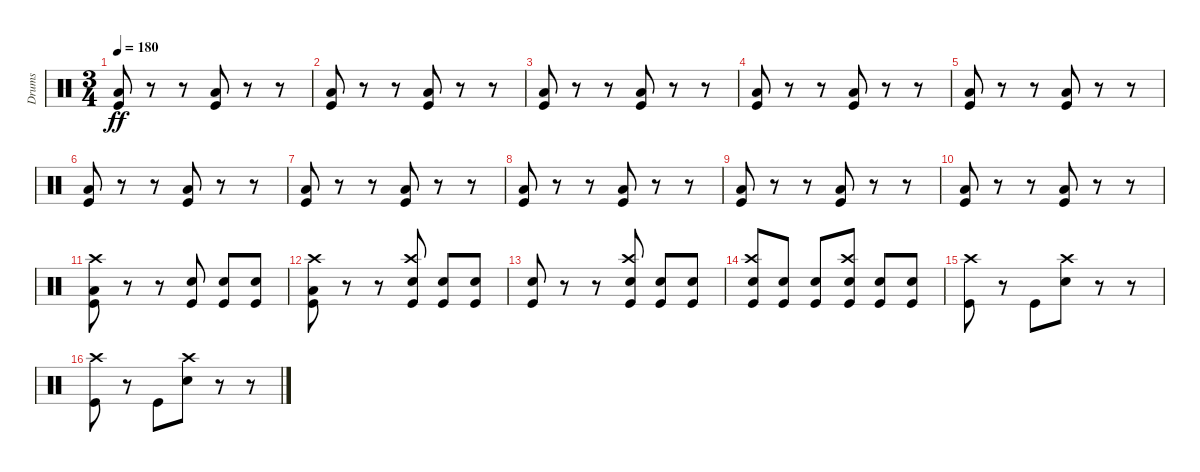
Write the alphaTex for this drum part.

\track ("Drums" "Drums") {instrument percussion}
\staff {score}
\articulation defaults
\ts (3 4)
\tempo 180
\clef neutral
\ks c
("Low Floor Tom (hit)" "Kick (hit)").8{dy ff} r.8 r.8 ("Low Floor Tom (hit)" "Kick (hit)").8 r.8 r.8 |
("Low Floor Tom (hit)" "Kick (hit)").8 r.8 r.8 ("Low Floor Tom (hit)" "Kick (hit)").8 r.8 r.8 |
("Low Floor Tom (hit)" "Kick (hit)").8 r.8 r.8 ("Low Floor Tom (hit)" "Kick (hit)").8 r.8 r.8 |
("Low Floor Tom (hit)" "Kick (hit)").8 r.8 r.8 ("Low Floor Tom (hit)" "Kick (hit)").8 r.8 r.8 |
("Low Floor Tom (hit)" "Kick (hit)").8 r.8 r.8 ("Low Floor Tom (hit)" "Kick (hit)").8 r.8 r.8 |
("Low Floor Tom (hit)" "Kick (hit)").8 r.8 r.8 ("Low Floor Tom (hit)" "Kick (hit)").8 r.8 r.8 |
("Low Floor Tom (hit)" "Kick (hit)").8 r.8 r.8 ("Low Floor Tom (hit)" "Kick (hit)").8 r.8 r.8 |
("Low Floor Tom (hit)" "Kick (hit)").8 r.8 r.8 ("Low Floor Tom (hit)" "Kick (hit)").8 r.8 r.8 |
("Low Floor Tom (hit)" "Kick (hit)").8 r.8 r.8 ("Low Floor Tom (hit)" "Kick (hit)").8 r.8 r.8 |
("Low Floor Tom (hit)" "Kick (hit)").8 r.8 r.8 ("Low Floor Tom (hit)" "Kick (hit)").8 r.8 r.8 |
("Crash high (hit)" "Low Floor Tom (hit)" "Kick (hit)").8 r.8 r.8 ("Snare (hit) 2" "Kick (hit)").8 ("Snare (hit) 2" "Kick (hit)").8 ("Snare (hit) 2" "Kick (hit)").8 |
("Crash high (hit)" "Low Floor Tom (hit)" "Kick (hit)").8 r.8 r.8 ("Crash high (hit)" "Snare (hit) 2" "Kick (hit)").8 ("Snare (hit) 2" "Kick (hit)").8 ("Snare (hit) 2" "Kick (hit)").8 |
("Snare (hit) 2" "Kick (hit)").8 r.8 r.8 ("Crash high (hit)" "Snare (hit) 2" "Kick (hit)").8 ("Snare (hit) 2" "Kick (hit)").8 ("Snare (hit) 2" "Kick (hit)").8 |
("Crash high (hit)" "Snare (hit) 2" "Kick (hit)").8 ("Snare (hit) 2" "Kick (hit)").8 ("Snare (hit) 2" "Kick (hit)").8 ("Crash high (hit)" "Snare (hit) 2" "Kick (hit)").8 ("Snare (hit) 2" "Kick (hit)").8 ("Snare (hit) 2" "Kick (hit)").8 |
("Crash high (hit)" "Kick (hit)").8 r.8 "Kick (hit)".8 ("Crash high (hit)" "Snare (hit) 2").8 r.8 r.8 |
("Crash high (hit)" "Kick (hit)").8 r.8 "Kick (hit)".8 ("Crash high (hit)" "Snare (hit) 2").8 r.8 r.8
